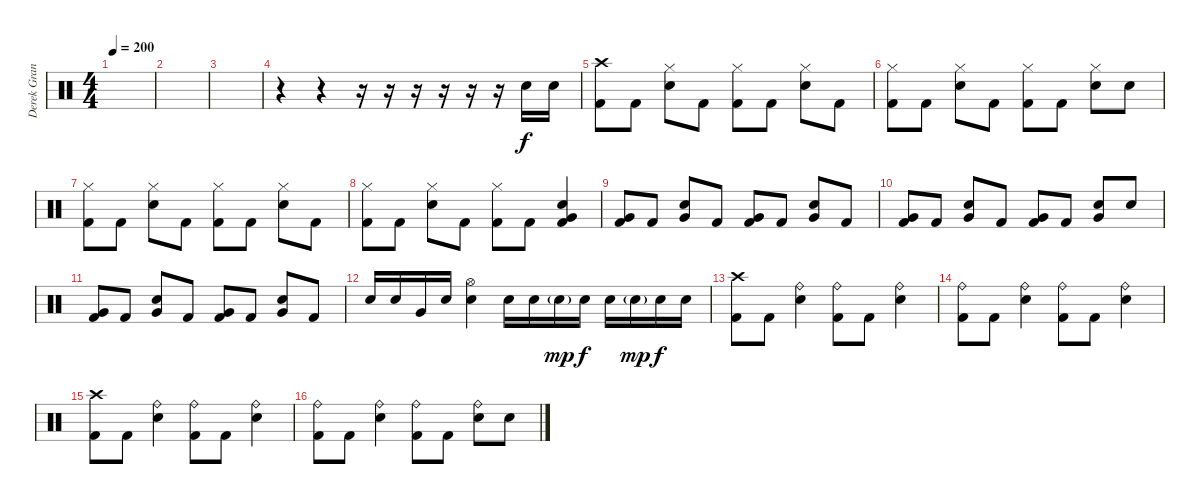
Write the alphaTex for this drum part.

\track ("Derek Grant" "Derek Gran") {instrument percussion}
\staff {score}
\articulation defaults
\ts (4 4)
\tempo 200
\clef neutral
\ks c
|
|
|
r.4 r.4 r.16 r.16 r.16 r.16 r.16 r.16 "Electric Snare (hit)".16 "Electric Snare (hit)".16 |
("Crash high (hit)" "Kick (hit) 2").8 "Kick (hit) 2".8 ("Hi-Hat (closed)" "Electric Snare (hit)").8 "Kick (hit) 2".8 ("Hi-Hat (closed)" "Kick (hit) 2").8 "Kick (hit) 2".8 ("Hi-Hat (closed)" "Electric Snare (hit)").8 "Kick (hit) 2".8 |
("Hi-Hat (closed)" "Kick (hit) 2").8 "Kick (hit) 2".8 ("Hi-Hat (closed)" "Electric Snare (hit)").8 "Kick (hit) 2".8 ("Hi-Hat (closed)" "Kick (hit) 2").8 "Kick (hit) 2".8 ("Hi-Hat (closed)" "Electric Snare (hit)").8 "Electric Snare (hit)".8 |
("Hi-Hat (closed)" "Kick (hit) 2").8 "Kick (hit) 2".8 ("Hi-Hat (closed)" "Electric Snare (hit)").8 "Kick (hit) 2".8 ("Hi-Hat (closed)" "Kick (hit) 2").8 "Kick (hit) 2".8 ("Hi-Hat (closed)" "Electric Snare (hit)").8 "Kick (hit) 2".8 |
("Hi-Hat (closed)" "Kick (hit) 2").8 "Kick (hit) 2".8 ("Hi-Hat (closed)" "Electric Snare (hit)").8 "Kick (hit) 2".8 ("Hi-Hat (closed)" "Kick (hit) 2").8 "Kick (hit) 2".8 ("Electric Snare (hit)" "Very Low Tom (hit)" "Kick (hit) 2").4 |
("Very Low Tom (hit)" "Kick (hit) 2").8 "Kick (hit) 2".8 ("Very Low Tom (hit)" "Electric Snare (hit)").8 "Kick (hit) 2".8 ("Very Low Tom (hit)" "Kick (hit) 2").8 "Kick (hit) 2".8 ("Very Low Tom (hit)" "Electric Snare (hit)").8 "Kick (hit) 2".8 |
("Very Low Tom (hit)" "Kick (hit) 2").8 "Kick (hit) 2".8 ("Very Low Tom (hit)" "Electric Snare (hit)").8 "Kick (hit) 2".8 ("Very Low Tom (hit)" "Kick (hit) 2").8 "Kick (hit) 2".8 ("Very Low Tom (hit)" "Electric Snare (hit)").8 "Electric Snare (hit)".8 |
("Very Low Tom (hit)" "Kick (hit) 2").8 "Kick (hit) 2".8 ("Very Low Tom (hit)" "Electric Snare (hit)").8 "Kick (hit) 2".8 ("Very Low Tom (hit)" "Kick (hit) 2").8 "Kick (hit) 2".8 ("Very Low Tom (hit)" "Electric Snare (hit)").8 "Kick (hit) 2".8 |
"Electric Snare (hit)".16 "Electric Snare (hit)".16 "Very Low Tom (hit)".16 "Electric Snare (hit)".16 ("Hi-Hat (open)" "Electric Snare (hit)").4 "Electric Snare (hit)".16 "Electric Snare (hit)".16 "Electric Snare (hit)"{g}.16{dy mp} "Electric Snare (hit)".16{dy f} "Electric Snare (hit)".16 "Electric Snare (hit)"{g}.16{dy mp} "Electric Snare (hit)".16{dy f} "Electric Snare (hit)".16 |
("Crash high (hit)" "Kick (hit) 2").8 "Kick (hit) 2".8 ("Ride (bell)" "Electric Snare (hit)").4 ("Ride (bell)" "Kick (hit) 2").8 "Kick (hit) 2".8 ("Ride (bell)" "Electric Snare (hit)").4 |
("Ride (bell)" "Kick (hit) 2").8 "Kick (hit) 2".8 ("Ride (bell)" "Electric Snare (hit)").4 ("Ride (bell)" "Kick (hit) 2").8 "Kick (hit) 2".8 ("Ride (bell)" "Electric Snare (hit)").4 |
("Crash high (hit)" "Kick (hit) 2").8 "Kick (hit) 2".8 ("Ride (bell)" "Electric Snare (hit)").4 ("Ride (bell)" "Kick (hit) 2").8 "Kick (hit) 2".8 ("Ride (bell)" "Electric Snare (hit)").4 |
("Ride (bell)" "Kick (hit) 2").8 "Kick (hit) 2".8 ("Ride (bell)" "Electric Snare (hit)").4 ("Ride (bell)" "Kick (hit) 2").8 "Kick (hit) 2".8 ("Ride (bell)" "Electric Snare (hit)").8 "Electric Snare (hit)".8
